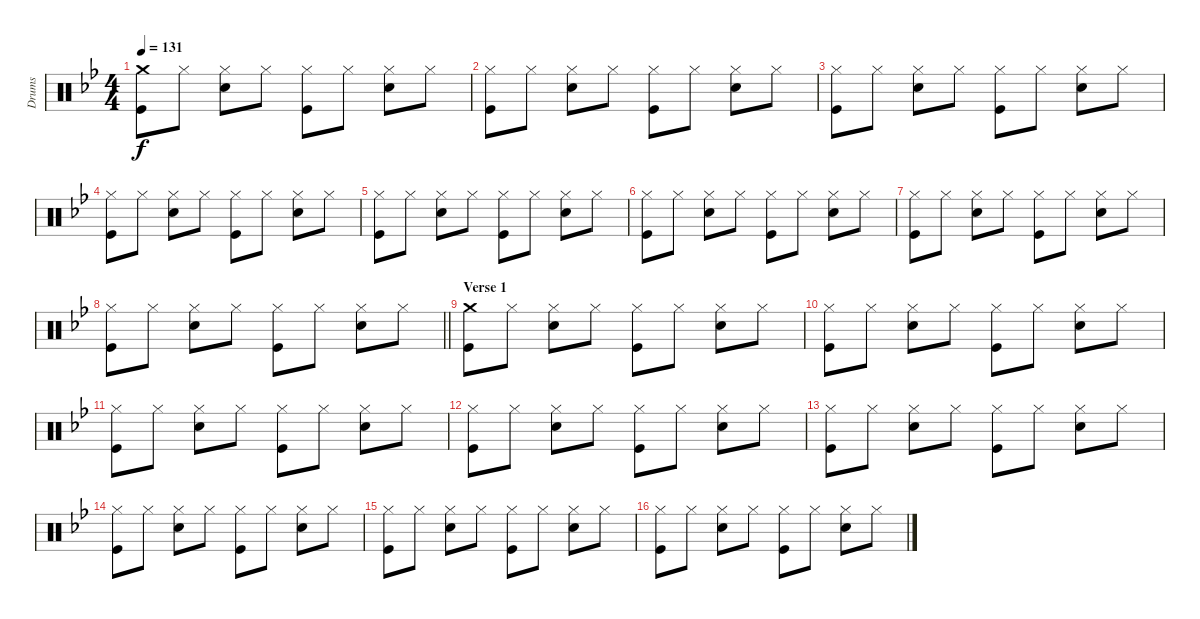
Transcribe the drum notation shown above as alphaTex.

\track ("Drums" "Drums") {instrument percussion}
\staff {score}
\articulation defaults
\ts (4 4)
\tempo 131
\clef neutral
\ks bb
("Crash medium (hit)" "Kick (hit)").8{dy f} "Hi-Hat (closed)".8 ("Hi-Hat (closed)" "Snare (hit) 2").8 "Hi-Hat (closed)".8 ("Hi-Hat (closed)" "Kick (hit)").8 "Hi-Hat (closed)".8 ("Hi-Hat (closed)" "Snare (hit) 2").8 "Hi-Hat (closed)".8 |
("Hi-Hat (closed)" "Kick (hit)").8 "Hi-Hat (closed)".8 ("Hi-Hat (closed)" "Snare (hit) 2").8 "Hi-Hat (closed)".8 ("Hi-Hat (closed)" "Kick (hit)").8 "Hi-Hat (closed)".8 ("Hi-Hat (closed)" "Snare (hit) 2").8 "Hi-Hat (closed)".8 |
("Hi-Hat (closed)" "Kick (hit)").8 "Hi-Hat (closed)".8 ("Hi-Hat (closed)" "Snare (hit) 2").8 "Hi-Hat (closed)".8 ("Hi-Hat (closed)" "Kick (hit)").8 "Hi-Hat (closed)".8 ("Hi-Hat (closed)" "Snare (hit) 2").8 "Hi-Hat (closed)".8 |
("Hi-Hat (closed)" "Kick (hit)").8 "Hi-Hat (closed)".8 ("Hi-Hat (closed)" "Snare (hit) 2").8 "Hi-Hat (closed)".8 ("Hi-Hat (closed)" "Kick (hit)").8 "Hi-Hat (closed)".8 ("Hi-Hat (closed)" "Snare (hit) 2").8 "Hi-Hat (closed)".8 |
("Hi-Hat (closed)" "Kick (hit)").8 "Hi-Hat (closed)".8 ("Hi-Hat (closed)" "Snare (hit) 2").8 "Hi-Hat (closed)".8 ("Hi-Hat (closed)" "Kick (hit)").8 "Hi-Hat (closed)".8 ("Hi-Hat (closed)" "Snare (hit) 2").8 "Hi-Hat (closed)".8 |
("Hi-Hat (closed)" "Kick (hit)").8 "Hi-Hat (closed)".8 ("Hi-Hat (closed)" "Snare (hit) 2").8 "Hi-Hat (closed)".8 ("Hi-Hat (closed)" "Kick (hit)").8 "Hi-Hat (closed)".8 ("Hi-Hat (closed)" "Snare (hit) 2").8 "Hi-Hat (closed)".8 |
("Hi-Hat (closed)" "Kick (hit)").8 "Hi-Hat (closed)".8 ("Hi-Hat (closed)" "Snare (hit) 2").8 "Hi-Hat (closed)".8 ("Hi-Hat (closed)" "Kick (hit)").8 "Hi-Hat (closed)".8 ("Hi-Hat (closed)" "Snare (hit) 2").8 "Hi-Hat (closed)".8 |
\barLineRight lightlight
("Hi-Hat (closed)" "Kick (hit)").8 "Hi-Hat (closed)".8 ("Hi-Hat (closed)" "Snare (hit) 2").8 "Hi-Hat (closed)".8 ("Hi-Hat (closed)" "Kick (hit)").8 "Hi-Hat (closed)".8 ("Hi-Hat (closed)" "Snare (hit) 2").8 "Hi-Hat (closed)".8 |
\section ("" "Verse 1")
("Crash medium (hit)" "Kick (hit)").8 "Hi-Hat (closed)".8 ("Hi-Hat (closed)" "Snare (hit) 2").8 "Hi-Hat (closed)".8 ("Hi-Hat (closed)" "Kick (hit)").8 "Hi-Hat (closed)".8 ("Hi-Hat (closed)" "Snare (hit) 2").8 "Hi-Hat (closed)".8 |
("Hi-Hat (closed)" "Kick (hit)").8 "Hi-Hat (closed)".8 ("Hi-Hat (closed)" "Snare (hit) 2").8 "Hi-Hat (closed)".8 ("Hi-Hat (closed)" "Kick (hit)").8 "Hi-Hat (closed)".8 ("Hi-Hat (closed)" "Snare (hit) 2").8 "Hi-Hat (closed)".8 |
("Hi-Hat (closed)" "Kick (hit)").8 "Hi-Hat (closed)".8 ("Hi-Hat (closed)" "Snare (hit) 2").8 "Hi-Hat (closed)".8 ("Hi-Hat (closed)" "Kick (hit)").8 "Hi-Hat (closed)".8 ("Hi-Hat (closed)" "Snare (hit) 2").8 "Hi-Hat (closed)".8 |
("Hi-Hat (closed)" "Kick (hit)").8 "Hi-Hat (closed)".8 ("Hi-Hat (closed)" "Snare (hit) 2").8 "Hi-Hat (closed)".8 ("Hi-Hat (closed)" "Kick (hit)").8 "Hi-Hat (closed)".8 ("Hi-Hat (closed)" "Snare (hit) 2").8 "Hi-Hat (closed)".8 |
("Hi-Hat (closed)" "Kick (hit)").8 "Hi-Hat (closed)".8 ("Hi-Hat (closed)" "Snare (hit) 2").8 "Hi-Hat (closed)".8 ("Hi-Hat (closed)" "Kick (hit)").8 "Hi-Hat (closed)".8 ("Hi-Hat (closed)" "Snare (hit) 2").8 "Hi-Hat (closed)".8 |
("Hi-Hat (closed)" "Kick (hit)").8 "Hi-Hat (closed)".8 ("Hi-Hat (closed)" "Snare (hit) 2").8 "Hi-Hat (closed)".8 ("Hi-Hat (closed)" "Kick (hit)").8 "Hi-Hat (closed)".8 ("Hi-Hat (closed)" "Snare (hit) 2").8 "Hi-Hat (closed)".8 |
("Hi-Hat (closed)" "Kick (hit)").8 "Hi-Hat (closed)".8 ("Hi-Hat (closed)" "Snare (hit) 2").8 "Hi-Hat (closed)".8 ("Hi-Hat (closed)" "Kick (hit)").8 "Hi-Hat (closed)".8 ("Hi-Hat (closed)" "Snare (hit) 2").8 "Hi-Hat (closed)".8 |
("Hi-Hat (closed)" "Kick (hit)").8 "Hi-Hat (closed)".8 ("Hi-Hat (closed)" "Snare (hit) 2").8 "Hi-Hat (closed)".8 ("Hi-Hat (closed)" "Kick (hit)").8 "Hi-Hat (closed)".8 ("Hi-Hat (closed)" "Snare (hit) 2").8 "Hi-Hat (closed)".8
